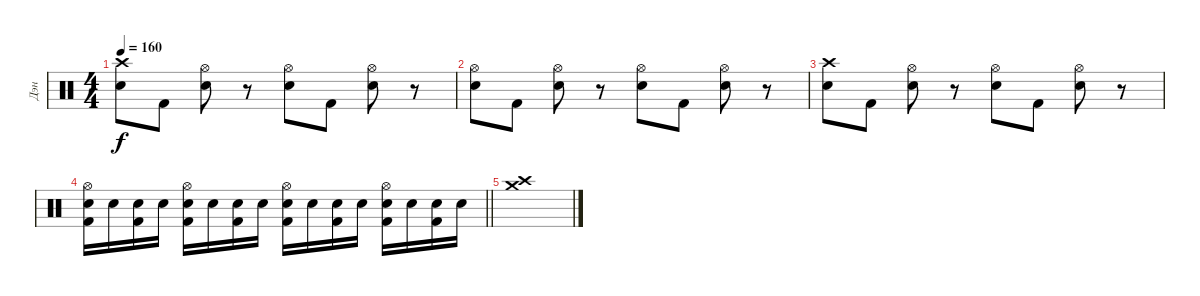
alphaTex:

\track ("Дэн" "Дэн") {instrument percussion}
\staff {score}
\articulation defaults
\ts (4 4)
\tempo 160
\clef neutral
\ks c
("Crash high (hit)" "Electric Snare (hit)").8{dy f} "Kick (hit) 2".8 ("Hi-Hat (open)" "Electric Snare (hit)").8 r.8 ("Hi-Hat (open)" "Electric Snare (hit)").8 "Kick (hit) 2".8 ("Hi-Hat (open)" "Electric Snare (hit)").8 r.8 |
("Hi-Hat (open)" "Electric Snare (hit)").8 "Kick (hit) 2".8 ("Hi-Hat (open)" "Electric Snare (hit)").8 r.8 ("Hi-Hat (open)" "Electric Snare (hit)").8 "Kick (hit) 2".8 ("Hi-Hat (open)" "Electric Snare (hit)").8 r.8 |
("Crash high (hit)" "Electric Snare (hit)").8 "Kick (hit) 2".8 ("Hi-Hat (open)" "Electric Snare (hit)").8 r.8 ("Hi-Hat (open)" "Electric Snare (hit)").8 "Kick (hit) 2".8 ("Hi-Hat (open)" "Electric Snare (hit)").8 r.8 |
\barLineRight lightlight
("Hi-Hat (open)" "Electric Snare (hit)" "Kick (hit) 2").16 "Electric Snare (hit)".16 ("Electric Snare (hit)" "Kick (hit) 2").16 "Electric Snare (hit)".16 ("Hi-Hat (open)" "Electric Snare (hit)" "Kick (hit) 2").16 "Electric Snare (hit)".16 ("Electric Snare (hit)" "Kick (hit) 2").16 "Electric Snare (hit)".16 ("Hi-Hat (open)" "Electric Snare (hit)" "Kick (hit) 2").16 "Electric Snare (hit)".16 ("Electric Snare (hit)" "Kick (hit) 2").16 "Electric Snare (hit)".16 ("Hi-Hat (open)" "Electric Snare (hit)" "Kick (hit) 2").16 "Electric Snare (hit)".16 ("Electric Snare (hit)" "Kick (hit) 2").16 "Electric Snare (hit)".16 |
("Crash high (hit)" "Crash medium (hit)").1
